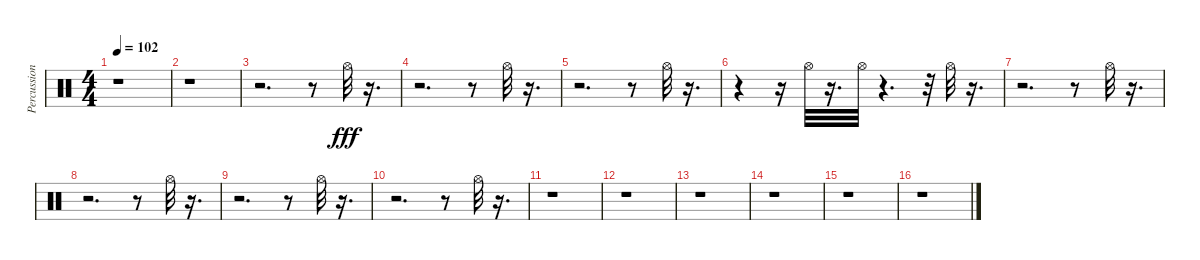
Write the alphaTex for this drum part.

\track ("Percussion" "Percussion") {instrument percussion}
\staff {score}
\articulation defaults
\ts (4 4)
\tempo 102
\clef neutral
\ks c
r.1{dy fff} |
r.1 |
r.2{d} r.8 "Hi-Hat (open)".32 r.16{d} |
r.2{d} r.8 "Hi-Hat (open)".32 r.16{d} |
r.2{d} r.8 "Hi-Hat (open)".32 r.16{d} |
r.4 r.16 "Hi-Hat (open)".32 r.16{d} "Hi-Hat (open)".32 r.4{d} r.32 "Hi-Hat (open)".32 r.16{d} |
r.2{d} r.8 "Hi-Hat (open)".32 r.16{d} |
r.2{d} r.8 "Hi-Hat (open)".32 r.16{d} |
r.2{d} r.8 "Hi-Hat (open)".32 r.16{d} |
r.2{d} r.8 "Hi-Hat (open)".32 r.16{d} |
r.1 |
r.1 |
r.1 |
r.1 |
r.1 |
r.1
